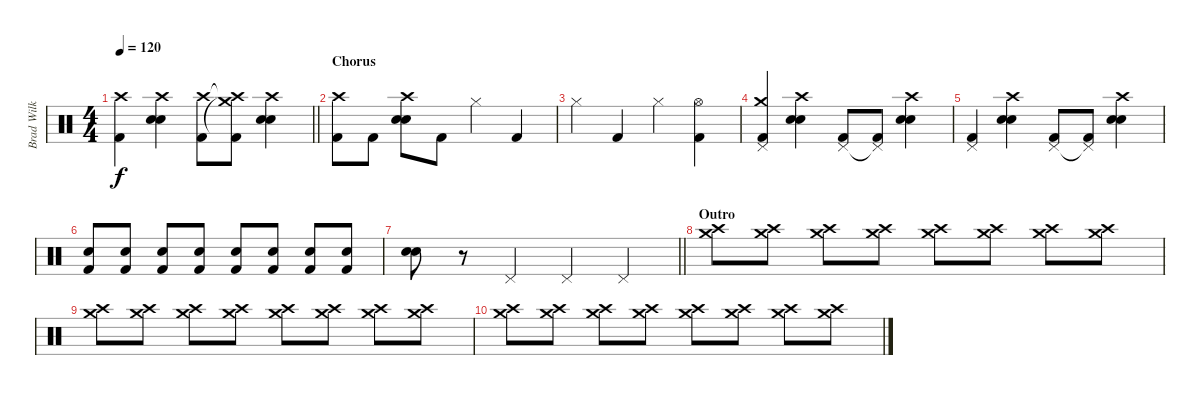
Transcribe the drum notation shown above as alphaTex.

\track ("Brad Wilk" "Brad Wilk") {instrument percussion}
\staff {score}
\articulation defaults
\ts (4 4)
\tempo 120
\clef neutral
\barLineRight lightlight
\ks c
("Crash high (hit)" "Kick (hit) 2").4{dy f} ("Electric Snare (hit)" "Snare (hit) 2" "Crash high (hit)").4 ("Crash high (hit)" "Kick (hit) 2").8 ("Crash high (hit)"{t} "Crash medium (hit)"{t} "Kick (hit) 2").8 ("Electric Snare (hit)" "Snare (hit) 2" "Crash high (hit)").4 |
\section ("" "Chorus")
("Crash high (hit)" "Kick (hit) 2").8 "Kick (hit) 2".8 ("Electric Snare (hit)" "Snare (hit) 2" "Crash high (hit)").8 "Kick (hit) 2".8 "Hi-Hat (closed)".4 "Kick (hit) 2".4 |
"Hi-Hat (closed)".4 "Kick (hit) 2".4 "Hi-Hat (closed)".4 ("Hi-Hat (open)" "Kick (hit) 2").4 |
("Crash medium (hit)" "Pedal Hi-Hat (hit)" "Kick (hit) 2").4 ("Electric Snare (hit)" "Snare (hit) 2" "Crash high (hit)").4 ("Pedal Hi-Hat (hit)" "Kick (hit) 2").8 ("Pedal Hi-Hat (hit)"{t} "Kick (hit) 2").8 ("Electric Snare (hit)" "Snare (hit) 2" "Crash high (hit)").4 |
("Pedal Hi-Hat (hit)" "Kick (hit) 2").4 ("Electric Snare (hit)" "Snare (hit) 2" "Crash high (hit)").4 ("Pedal Hi-Hat (hit)" "Kick (hit) 2").8 ("Pedal Hi-Hat (hit)"{t} "Kick (hit) 2").8 ("Electric Snare (hit)" "Snare (hit) 2" "Crash high (hit)").4 |
("Electric Snare (hit)" "Kick (hit) 2").8 ("Electric Snare (hit)" "Kick (hit) 2").8 ("Electric Snare (hit)" "Kick (hit) 2").8 ("Electric Snare (hit)" "Kick (hit) 2").8 ("Electric Snare (hit)" "Kick (hit) 2").8 ("Electric Snare (hit)" "Kick (hit) 2").8 ("Electric Snare (hit)" "Kick (hit) 2").8 ("Electric Snare (hit)" "Kick (hit) 2").8 |
\barLineRight lightlight
("Electric Snare (hit)" "Electric Snare (hit)").8{bd 60} r.8 "Pedal Hi-Hat (hit)".4 "Pedal Hi-Hat (hit)".4 "Pedal Hi-Hat (hit)".4 |
\section ("" "Outro")
("Crash high (hit)" "Crash medium (hit)").8 ("Crash high (hit)" "Crash medium (hit)").8 ("Crash high (hit)" "Crash medium (hit)").8 ("Crash high (hit)" "Crash medium (hit)").8 ("Crash high (hit)" "Crash medium (hit)").8 ("Crash high (hit)" "Crash medium (hit)").8 ("Crash high (hit)" "Crash medium (hit)").8 ("Crash high (hit)" "Crash medium (hit)").8 |
("Crash high (hit)" "Crash medium (hit)").8 ("Crash high (hit)" "Crash medium (hit)").8 ("Crash high (hit)" "Crash medium (hit)").8 ("Crash high (hit)" "Crash medium (hit)").8 ("Crash high (hit)" "Crash medium (hit)").8 ("Crash high (hit)" "Crash medium (hit)").8 ("Crash high (hit)" "Crash medium (hit)").8 ("Crash high (hit)" "Crash medium (hit)").8 |
("Crash high (hit)" "Crash medium (hit)").8 ("Crash high (hit)" "Crash medium (hit)").8 ("Crash high (hit)" "Crash medium (hit)").8 ("Crash high (hit)" "Crash medium (hit)").8 ("Crash high (hit)" "Crash medium (hit)").8 ("Crash high (hit)" "Crash medium (hit)").8 ("Crash high (hit)" "Crash medium (hit)").8 ("Crash high (hit)" "Crash medium (hit)").8
